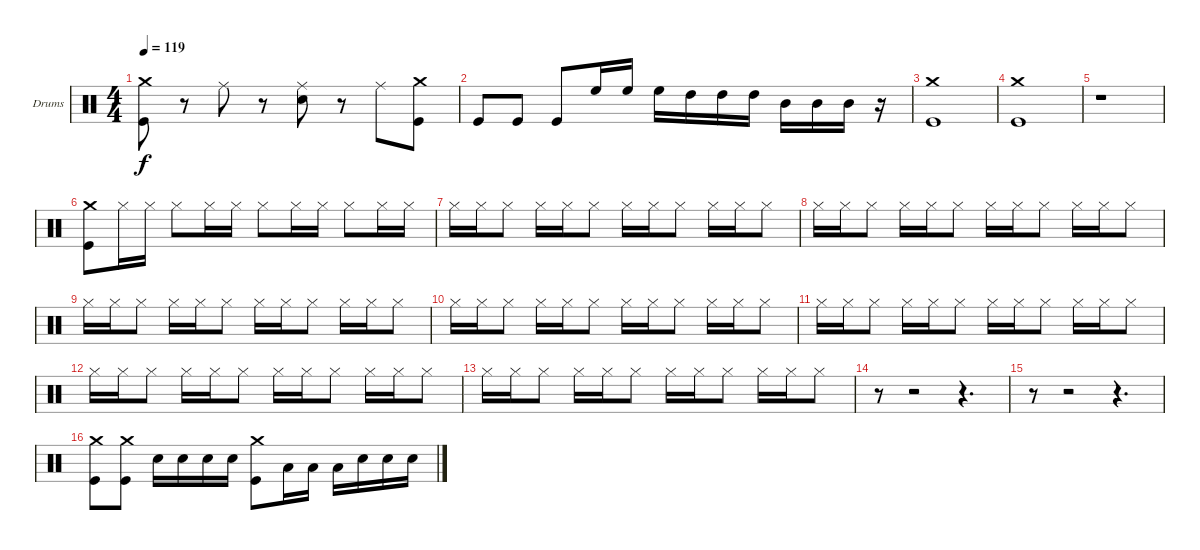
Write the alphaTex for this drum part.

\bracketExtendMode groupsimilarinstruments
\firstSystemTrackNameOrientation horizontal
\otherSystemsTrackNameOrientation horizontal
\track ("Drumkit" "Drums") {instrument percussion}
\staff {score}
\articulation defaults
\ts (4 4)
\tempo 119
\clef neutral
\ks c
("Crash medium (hit)" "Kick (hit)").8{dy f} r.8 "Ride (middle)".8 r.8 ("Ride (middle)" "Snare (hit) 2").8 r.8 "Ride (middle)".8 ("Crash medium (hit)" "Kick (hit)").8 |
"Kick (hit)".8 "Kick (hit)".8 "Kick (hit)".8 "High Floor Tom (hit)".16 "High Floor Tom (hit)".16 "High Floor Tom (hit)".16 "High Tom (hit)".16 "High Tom (hit)".16 "High Tom (hit)".16 "Mid Tom (hit)".16 "Mid Tom (hit)".16 "Mid Tom (hit)".16 r.16 |
("Crash medium (hit)" "Kick (hit)").1 |
("Crash medium (hit)" "Kick (hit)").1 |
r.1 |
("Crash medium (hit)" "Kick (hit)").8 "Hi-Hat (closed)".16 "Hi-Hat (closed)".16 "Hi-Hat (closed)".8 "Hi-Hat (closed)".16 "Hi-Hat (closed)".16 "Hi-Hat (closed)".8 "Hi-Hat (closed)".16 "Hi-Hat (closed)".16 "Hi-Hat (closed)".8 "Hi-Hat (closed)".16 "Hi-Hat (closed)".16 |
"Hi-Hat (closed)".16 "Hi-Hat (closed)".16 "Hi-Hat (closed)".8 "Hi-Hat (closed)".16 "Hi-Hat (closed)".16 "Hi-Hat (closed)".8 "Hi-Hat (closed)".16 "Hi-Hat (closed)".16 "Hi-Hat (closed)".8 "Hi-Hat (closed)".16 "Hi-Hat (closed)".16 "Hi-Hat (closed)".8 |
"Hi-Hat (closed)".16 "Hi-Hat (closed)".16 "Hi-Hat (closed)".8 "Hi-Hat (closed)".16 "Hi-Hat (closed)".16 "Hi-Hat (closed)".8 "Hi-Hat (closed)".16 "Hi-Hat (closed)".16 "Hi-Hat (closed)".8 "Hi-Hat (closed)".16 "Hi-Hat (closed)".16 "Hi-Hat (closed)".8 |
"Hi-Hat (closed)".16 "Hi-Hat (closed)".16 "Hi-Hat (closed)".8 "Hi-Hat (closed)".16 "Hi-Hat (closed)".16 "Hi-Hat (closed)".8 "Hi-Hat (closed)".16 "Hi-Hat (closed)".16 "Hi-Hat (closed)".8 "Hi-Hat (closed)".16 "Hi-Hat (closed)".16 "Hi-Hat (closed)".8 |
"Hi-Hat (closed)".16 "Hi-Hat (closed)".16 "Hi-Hat (closed)".8 "Hi-Hat (closed)".16 "Hi-Hat (closed)".16 "Hi-Hat (closed)".8 "Hi-Hat (closed)".16 "Hi-Hat (closed)".16 "Hi-Hat (closed)".8 "Hi-Hat (closed)".16 "Hi-Hat (closed)".16 "Hi-Hat (closed)".8 |
"Hi-Hat (closed)".16 "Hi-Hat (closed)".16 "Hi-Hat (closed)".8 "Hi-Hat (closed)".16 "Hi-Hat (closed)".16 "Hi-Hat (closed)".8 "Hi-Hat (closed)".16 "Hi-Hat (closed)".16 "Hi-Hat (closed)".8 "Hi-Hat (closed)".16 "Hi-Hat (closed)".16 "Hi-Hat (closed)".8 |
"Hi-Hat (closed)".16 "Hi-Hat (closed)".16 "Hi-Hat (closed)".8 "Hi-Hat (closed)".16 "Hi-Hat (closed)".16 "Hi-Hat (closed)".8 "Hi-Hat (closed)".16 "Hi-Hat (closed)".16 "Hi-Hat (closed)".8 "Hi-Hat (closed)".16 "Hi-Hat (closed)".16 "Hi-Hat (closed)".8 |
"Hi-Hat (closed)".16 "Hi-Hat (closed)".16 "Hi-Hat (closed)".8 "Hi-Hat (closed)".16 "Hi-Hat (closed)".16 "Hi-Hat (closed)".8 "Hi-Hat (closed)".16 "Hi-Hat (closed)".16 "Hi-Hat (closed)".8 "Hi-Hat (closed)".16 "Hi-Hat (closed)".16 "Hi-Hat (closed)".8 |
r.8 r.2 r.4{d} |
r.8 r.2 r.4{d} |
("Crash medium (hit)" "Kick (hit)").8 ("Crash medium (hit)" "Kick (hit)").8 "Snare (hit) 2".16 "Snare (hit) 2".16 "Snare (hit) 2".16 "Snare (hit) 2".16 ("Crash medium (hit)" "Kick (hit)").8 "Low Tom (hit)".16 "Low Tom (hit)".16 "Low Tom (hit)".16 "Snare (hit) 2".16 "Snare (hit) 2".16 "Snare (hit) 2".16
